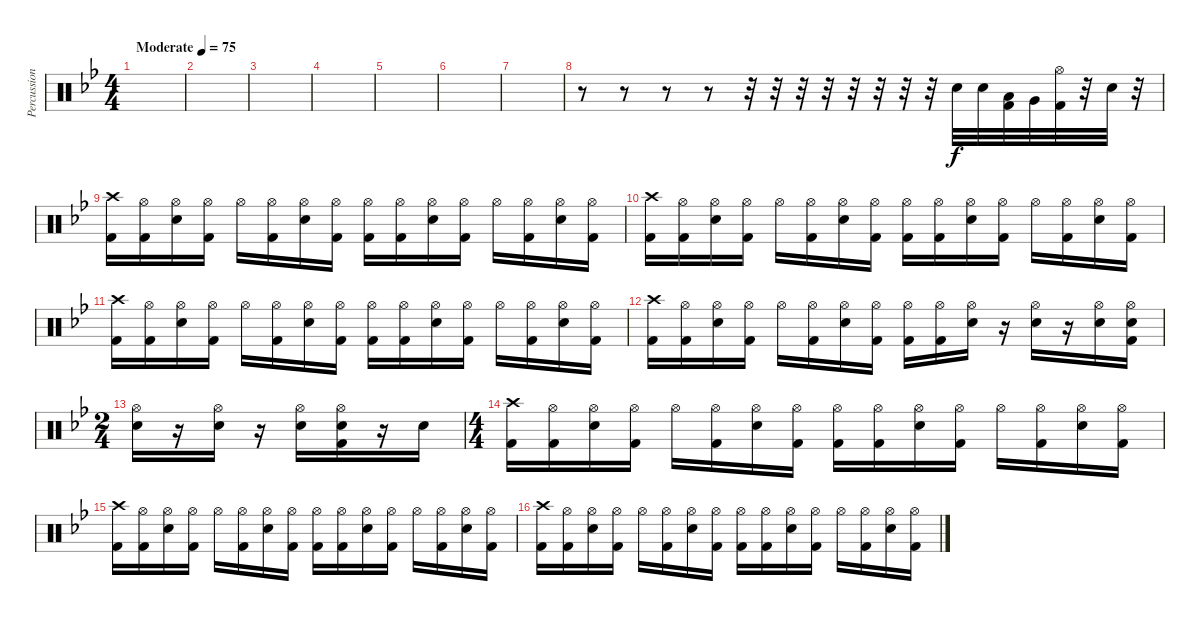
\track ("Percussion" "Percussion") {instrument percussion}
\staff {score}
\articulation defaults
\ts (4 4)
\tempo (75 "Moderate")
\clef neutral
\ks bb
|
|
|
|
|
|
|
r.8 r.8 r.8 r.8 r.32 r.32 r.32 r.32 r.32 r.32 r.32 r.32 "Electric Snare (hit)".32 "Electric Snare (hit)".32 ("Low Tom (hit)" "Kick (hit) 2").32 "Very Low Tom (hit)".32 ("Hi-Hat (open)" "Kick (hit) 2").32 r.32 "Electric Snare (hit)".32 r.32 |
("Crash high (hit)" "Kick (hit) 2").16 ("Hi-Hat (open)" "Kick (hit) 2").16 ("Hi-Hat (open)" "Electric Snare (hit)").16 ("Hi-Hat (open)" "Kick (hit) 2").16 "Hi-Hat (open)".16 ("Hi-Hat (open)" "Kick (hit) 2").16 ("Hi-Hat (open)" "Electric Snare (hit)").16 ("Hi-Hat (open)" "Kick (hit) 2").16 ("Hi-Hat (open)" "Kick (hit) 2").16 ("Hi-Hat (open)" "Kick (hit) 2").16 ("Hi-Hat (open)" "Electric Snare (hit)").16 ("Hi-Hat (open)" "Kick (hit) 2").16 "Hi-Hat (open)".16 ("Hi-Hat (open)" "Kick (hit) 2").16 ("Hi-Hat (open)" "Electric Snare (hit)").16 ("Hi-Hat (open)" "Kick (hit) 2").16 |
("Crash high (hit)" "Kick (hit) 2").16 ("Hi-Hat (open)" "Kick (hit) 2").16 ("Hi-Hat (open)" "Electric Snare (hit)").16 ("Hi-Hat (open)" "Kick (hit) 2").16 "Hi-Hat (open)".16 ("Hi-Hat (open)" "Kick (hit) 2").16 ("Hi-Hat (open)" "Electric Snare (hit)").16 ("Hi-Hat (open)" "Kick (hit) 2").16 ("Hi-Hat (open)" "Kick (hit) 2").16 ("Hi-Hat (open)" "Kick (hit) 2").16 ("Hi-Hat (open)" "Electric Snare (hit)").16 ("Hi-Hat (open)" "Kick (hit) 2").16 "Hi-Hat (open)".16 ("Hi-Hat (open)" "Kick (hit) 2").16 ("Hi-Hat (open)" "Electric Snare (hit)").16 ("Hi-Hat (open)" "Kick (hit) 2").16 |
("Crash high (hit)" "Kick (hit) 2").16 ("Hi-Hat (open)" "Kick (hit) 2").16 ("Hi-Hat (open)" "Electric Snare (hit)").16 ("Hi-Hat (open)" "Kick (hit) 2").16 "Hi-Hat (open)".16 ("Hi-Hat (open)" "Kick (hit) 2").16 ("Hi-Hat (open)" "Electric Snare (hit)").16 ("Hi-Hat (open)" "Kick (hit) 2").16 ("Hi-Hat (open)" "Kick (hit) 2").16 ("Hi-Hat (open)" "Kick (hit) 2").16 ("Hi-Hat (open)" "Electric Snare (hit)").16 ("Hi-Hat (open)" "Kick (hit) 2").16 "Hi-Hat (open)".16 ("Hi-Hat (open)" "Kick (hit) 2").16 ("Hi-Hat (open)" "Electric Snare (hit)").16 ("Hi-Hat (open)" "Kick (hit) 2").16 |
("Crash high (hit)" "Kick (hit) 2").16 ("Hi-Hat (open)" "Kick (hit) 2").16 ("Hi-Hat (open)" "Electric Snare (hit)").16 ("Hi-Hat (open)" "Kick (hit) 2").16 "Hi-Hat (open)".16 ("Hi-Hat (open)" "Kick (hit) 2").16 ("Hi-Hat (open)" "Electric Snare (hit)").16 ("Hi-Hat (open)" "Kick (hit) 2").16 ("Hi-Hat (open)" "Kick (hit) 2").16 ("Hi-Hat (open)" "Kick (hit) 2").16 ("Hi-Hat (open)" "Electric Snare (hit)").16 r.16 ("Hi-Hat (open)" "Electric Snare (hit)").16 r.16 ("Hi-Hat (open)" "Electric Snare (hit)").16 ("Hi-Hat (open)" "Electric Snare (hit)" "Kick (hit) 2").16 |
\ts (2 4)
("Hi-Hat (open)" "Electric Snare (hit)").16 r.16 ("Hi-Hat (open)" "Electric Snare (hit)").16 r.16 ("Hi-Hat (open)" "Electric Snare (hit)").16 ("Hi-Hat (open)" "Electric Snare (hit)" "Kick (hit) 2").16 r.16 "Electric Snare (hit)".16 |
\ts (4 4)
("Crash high (hit)" "Kick (hit) 2").16 ("Hi-Hat (open)" "Kick (hit) 2").16 ("Hi-Hat (open)" "Electric Snare (hit)").16 ("Hi-Hat (open)" "Kick (hit) 2").16 "Hi-Hat (open)".16 ("Hi-Hat (open)" "Kick (hit) 2").16 ("Hi-Hat (open)" "Electric Snare (hit)").16 ("Hi-Hat (open)" "Kick (hit) 2").16 ("Hi-Hat (open)" "Kick (hit) 2").16 ("Hi-Hat (open)" "Kick (hit) 2").16 ("Hi-Hat (open)" "Electric Snare (hit)").16 ("Hi-Hat (open)" "Kick (hit) 2").16 "Hi-Hat (open)".16 ("Hi-Hat (open)" "Kick (hit) 2").16 ("Hi-Hat (open)" "Electric Snare (hit)").16 ("Hi-Hat (open)" "Kick (hit) 2").16 |
("Crash high (hit)" "Kick (hit) 2").16 ("Hi-Hat (open)" "Kick (hit) 2").16 ("Hi-Hat (open)" "Electric Snare (hit)").16 ("Hi-Hat (open)" "Kick (hit) 2").16 "Hi-Hat (open)".16 ("Hi-Hat (open)" "Kick (hit) 2").16 ("Hi-Hat (open)" "Electric Snare (hit)").16 ("Hi-Hat (open)" "Kick (hit) 2").16 ("Hi-Hat (open)" "Kick (hit) 2").16 ("Hi-Hat (open)" "Kick (hit) 2").16 ("Hi-Hat (open)" "Electric Snare (hit)").16 ("Hi-Hat (open)" "Kick (hit) 2").16 "Hi-Hat (open)".16 ("Hi-Hat (open)" "Kick (hit) 2").16 ("Hi-Hat (open)" "Electric Snare (hit)").16 ("Hi-Hat (open)" "Kick (hit) 2").16 |
("Crash high (hit)" "Kick (hit) 2").16 ("Hi-Hat (open)" "Kick (hit) 2").16 ("Hi-Hat (open)" "Electric Snare (hit)").16 ("Hi-Hat (open)" "Kick (hit) 2").16 "Hi-Hat (open)".16 ("Hi-Hat (open)" "Kick (hit) 2").16 ("Hi-Hat (open)" "Electric Snare (hit)").16 ("Hi-Hat (open)" "Kick (hit) 2").16 ("Hi-Hat (open)" "Kick (hit) 2").16 ("Hi-Hat (open)" "Kick (hit) 2").16 ("Hi-Hat (open)" "Electric Snare (hit)").16 ("Hi-Hat (open)" "Kick (hit) 2").16 "Hi-Hat (open)".16 ("Hi-Hat (open)" "Kick (hit) 2").16 ("Hi-Hat (open)" "Electric Snare (hit)").16 ("Hi-Hat (open)" "Kick (hit) 2").16
